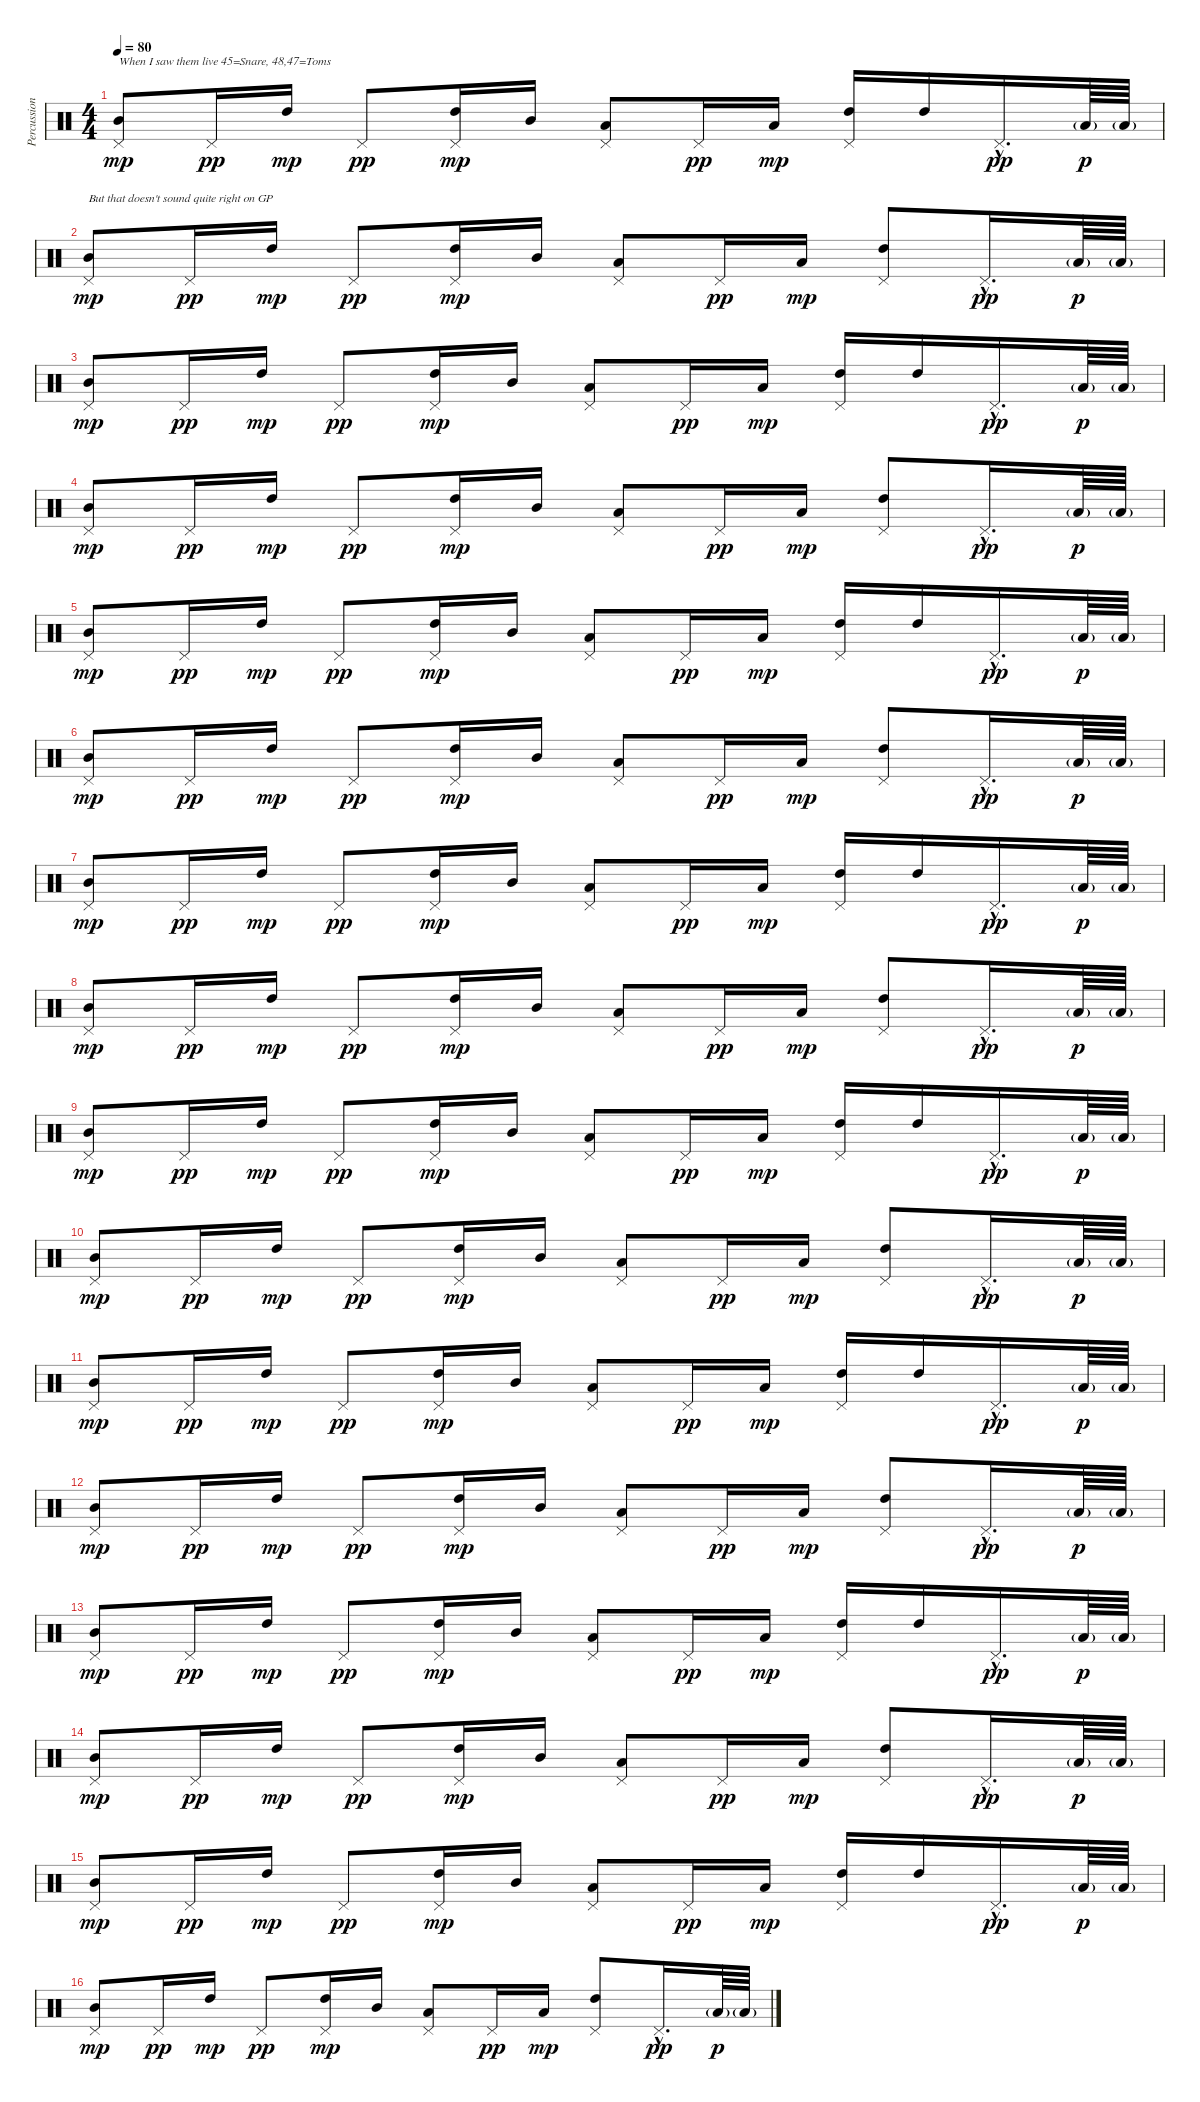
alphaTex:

\track ("Percussion" "Percussion") {instrument percussion}
\staff {score}
\articulation defaults
\ts (4 4)
\tempo 80
\clef neutral
\ks c
("Pedal Hi-Hat (hit)" "Mid Tom (hit)").8{txt "When I saw them live 45=Snare, 48,47=Toms" dy mp} "Pedal Hi-Hat (hit)".16{dy pp} "High Tom (hit)".16{dy mp} "Pedal Hi-Hat (hit)".8{dy pp} ("Pedal Hi-Hat (hit)" "High Tom (hit)").16{dy mp} "Mid Tom (hit)".16 ("Pedal Hi-Hat (hit)" "Low Tom (hit)").8 "Pedal Hi-Hat (hit)".16{dy pp} "Low Tom (hit)".16{dy mp} ("Pedal Hi-Hat (hit)" "High Tom (hit)").16 "High Tom (hit)".16 "Pedal Hi-Hat (hit)"{hac}.16{d dy pp} "Low Tom (hit)"{g}.64{dy p} "Low Tom (hit)"{g}.64 |
("Pedal Hi-Hat (hit)" "Mid Tom (hit)").8{txt "But that doesn't sound quite right on GP" dy mp} "Pedal Hi-Hat (hit)".16{dy pp} "High Tom (hit)".16{dy mp} "Pedal Hi-Hat (hit)".8{dy pp} ("Pedal Hi-Hat (hit)" "High Tom (hit)").16{dy mp} "Mid Tom (hit)".16 ("Pedal Hi-Hat (hit)" "Low Tom (hit)").8 "Pedal Hi-Hat (hit)".16{dy pp} "Low Tom (hit)".16{dy mp} ("Pedal Hi-Hat (hit)" "High Tom (hit)").8 "Pedal Hi-Hat (hit)"{hac}.16{d dy pp} "Low Tom (hit)"{g}.64{dy p} "Low Tom (hit)"{g}.64 |
("Pedal Hi-Hat (hit)" "Mid Tom (hit)").8{dy mp} "Pedal Hi-Hat (hit)".16{dy pp} "High Tom (hit)".16{dy mp} "Pedal Hi-Hat (hit)".8{dy pp} ("Pedal Hi-Hat (hit)" "High Tom (hit)").16{dy mp} "Mid Tom (hit)".16 ("Pedal Hi-Hat (hit)" "Low Tom (hit)").8 "Pedal Hi-Hat (hit)".16{dy pp} "Low Tom (hit)".16{dy mp} ("Pedal Hi-Hat (hit)" "High Tom (hit)").16 "High Tom (hit)".16 "Pedal Hi-Hat (hit)"{hac}.16{d dy pp} "Low Tom (hit)"{g}.64{dy p} "Low Tom (hit)"{g}.64 |
("Pedal Hi-Hat (hit)" "Mid Tom (hit)").8{dy mp} "Pedal Hi-Hat (hit)".16{dy pp} "High Tom (hit)".16{dy mp} "Pedal Hi-Hat (hit)".8{dy pp} ("Pedal Hi-Hat (hit)" "High Tom (hit)").16{dy mp} "Mid Tom (hit)".16 ("Pedal Hi-Hat (hit)" "Low Tom (hit)").8 "Pedal Hi-Hat (hit)".16{dy pp} "Low Tom (hit)".16{dy mp} ("Pedal Hi-Hat (hit)" "High Tom (hit)").8 "Pedal Hi-Hat (hit)"{hac}.16{d dy pp} "Low Tom (hit)"{g}.64{dy p} "Low Tom (hit)"{g}.64 |
("Pedal Hi-Hat (hit)" "Mid Tom (hit)").8{dy mp} "Pedal Hi-Hat (hit)".16{dy pp} "High Tom (hit)".16{dy mp} "Pedal Hi-Hat (hit)".8{dy pp} ("Pedal Hi-Hat (hit)" "High Tom (hit)").16{dy mp} "Mid Tom (hit)".16 ("Pedal Hi-Hat (hit)" "Low Tom (hit)").8 "Pedal Hi-Hat (hit)".16{dy pp} "Low Tom (hit)".16{dy mp} ("Pedal Hi-Hat (hit)" "High Tom (hit)").16 "High Tom (hit)".16 "Pedal Hi-Hat (hit)"{hac}.16{d dy pp} "Low Tom (hit)"{g}.64{dy p} "Low Tom (hit)"{g}.64 |
("Pedal Hi-Hat (hit)" "Mid Tom (hit)").8{dy mp} "Pedal Hi-Hat (hit)".16{dy pp} "High Tom (hit)".16{dy mp} "Pedal Hi-Hat (hit)".8{dy pp} ("Pedal Hi-Hat (hit)" "High Tom (hit)").16{dy mp} "Mid Tom (hit)".16 ("Pedal Hi-Hat (hit)" "Low Tom (hit)").8 "Pedal Hi-Hat (hit)".16{dy pp} "Low Tom (hit)".16{dy mp} ("Pedal Hi-Hat (hit)" "High Tom (hit)").8 "Pedal Hi-Hat (hit)"{hac}.16{d dy pp} "Low Tom (hit)"{g}.64{dy p} "Low Tom (hit)"{g}.64 |
("Pedal Hi-Hat (hit)" "Mid Tom (hit)").8{dy mp} "Pedal Hi-Hat (hit)".16{dy pp} "High Tom (hit)".16{dy mp} "Pedal Hi-Hat (hit)".8{dy pp} ("Pedal Hi-Hat (hit)" "High Tom (hit)").16{dy mp} "Mid Tom (hit)".16 ("Pedal Hi-Hat (hit)" "Low Tom (hit)").8 "Pedal Hi-Hat (hit)".16{dy pp} "Low Tom (hit)".16{dy mp} ("Pedal Hi-Hat (hit)" "High Tom (hit)").16 "High Tom (hit)".16 "Pedal Hi-Hat (hit)"{hac}.16{d dy pp} "Low Tom (hit)"{g}.64{dy p} "Low Tom (hit)"{g}.64 |
("Pedal Hi-Hat (hit)" "Mid Tom (hit)").8{dy mp} "Pedal Hi-Hat (hit)".16{dy pp} "High Tom (hit)".16{dy mp} "Pedal Hi-Hat (hit)".8{dy pp} ("Pedal Hi-Hat (hit)" "High Tom (hit)").16{dy mp} "Mid Tom (hit)".16 ("Pedal Hi-Hat (hit)" "Low Tom (hit)").8 "Pedal Hi-Hat (hit)".16{dy pp} "Low Tom (hit)".16{dy mp} ("Pedal Hi-Hat (hit)" "High Tom (hit)").8 "Pedal Hi-Hat (hit)"{hac}.16{d dy pp} "Low Tom (hit)"{g}.64{dy p} "Low Tom (hit)"{g}.64 |
("Pedal Hi-Hat (hit)" "Mid Tom (hit)").8{dy mp} "Pedal Hi-Hat (hit)".16{dy pp} "High Tom (hit)".16{dy mp} "Pedal Hi-Hat (hit)".8{dy pp} ("Pedal Hi-Hat (hit)" "High Tom (hit)").16{dy mp} "Mid Tom (hit)".16 ("Pedal Hi-Hat (hit)" "Low Tom (hit)").8 "Pedal Hi-Hat (hit)".16{dy pp} "Low Tom (hit)".16{dy mp} ("Pedal Hi-Hat (hit)" "High Tom (hit)").16 "High Tom (hit)".16 "Pedal Hi-Hat (hit)"{hac}.16{d dy pp} "Low Tom (hit)"{g}.64{dy p} "Low Tom (hit)"{g}.64 |
("Pedal Hi-Hat (hit)" "Mid Tom (hit)").8{dy mp} "Pedal Hi-Hat (hit)".16{dy pp} "High Tom (hit)".16{dy mp} "Pedal Hi-Hat (hit)".8{dy pp} ("Pedal Hi-Hat (hit)" "High Tom (hit)").16{dy mp} "Mid Tom (hit)".16 ("Pedal Hi-Hat (hit)" "Low Tom (hit)").8 "Pedal Hi-Hat (hit)".16{dy pp} "Low Tom (hit)".16{dy mp} ("Pedal Hi-Hat (hit)" "High Tom (hit)").8 "Pedal Hi-Hat (hit)"{hac}.16{d dy pp} "Low Tom (hit)"{g}.64{dy p} "Low Tom (hit)"{g}.64 |
("Pedal Hi-Hat (hit)" "Mid Tom (hit)").8{dy mp} "Pedal Hi-Hat (hit)".16{dy pp} "High Tom (hit)".16{dy mp} "Pedal Hi-Hat (hit)".8{dy pp} ("Pedal Hi-Hat (hit)" "High Tom (hit)").16{dy mp} "Mid Tom (hit)".16 ("Pedal Hi-Hat (hit)" "Low Tom (hit)").8 "Pedal Hi-Hat (hit)".16{dy pp} "Low Tom (hit)".16{dy mp} ("Pedal Hi-Hat (hit)" "High Tom (hit)").16 "High Tom (hit)".16 "Pedal Hi-Hat (hit)"{hac}.16{d dy pp} "Low Tom (hit)"{g}.64{dy p} "Low Tom (hit)"{g}.64 |
("Pedal Hi-Hat (hit)" "Mid Tom (hit)").8{dy mp} "Pedal Hi-Hat (hit)".16{dy pp} "High Tom (hit)".16{dy mp} "Pedal Hi-Hat (hit)".8{dy pp} ("Pedal Hi-Hat (hit)" "High Tom (hit)").16{dy mp} "Mid Tom (hit)".16 ("Pedal Hi-Hat (hit)" "Low Tom (hit)").8 "Pedal Hi-Hat (hit)".16{dy pp} "Low Tom (hit)".16{dy mp} ("Pedal Hi-Hat (hit)" "High Tom (hit)").8 "Pedal Hi-Hat (hit)"{hac}.16{d dy pp} "Low Tom (hit)"{g}.64{dy p} "Low Tom (hit)"{g}.64 |
("Pedal Hi-Hat (hit)" "Mid Tom (hit)").8{dy mp} "Pedal Hi-Hat (hit)".16{dy pp} "High Tom (hit)".16{dy mp} "Pedal Hi-Hat (hit)".8{dy pp} ("Pedal Hi-Hat (hit)" "High Tom (hit)").16{dy mp} "Mid Tom (hit)".16 ("Pedal Hi-Hat (hit)" "Low Tom (hit)").8 "Pedal Hi-Hat (hit)".16{dy pp} "Low Tom (hit)".16{dy mp} ("Pedal Hi-Hat (hit)" "High Tom (hit)").16 "High Tom (hit)".16 "Pedal Hi-Hat (hit)"{hac}.16{d dy pp} "Low Tom (hit)"{g}.64{dy p} "Low Tom (hit)"{g}.64 |
("Pedal Hi-Hat (hit)" "Mid Tom (hit)").8{dy mp} "Pedal Hi-Hat (hit)".16{dy pp} "High Tom (hit)".16{dy mp} "Pedal Hi-Hat (hit)".8{dy pp} ("Pedal Hi-Hat (hit)" "High Tom (hit)").16{dy mp} "Mid Tom (hit)".16 ("Pedal Hi-Hat (hit)" "Low Tom (hit)").8 "Pedal Hi-Hat (hit)".16{dy pp} "Low Tom (hit)".16{dy mp} ("Pedal Hi-Hat (hit)" "High Tom (hit)").8 "Pedal Hi-Hat (hit)"{hac}.16{d dy pp} "Low Tom (hit)"{g}.64{dy p} "Low Tom (hit)"{g}.64 |
("Pedal Hi-Hat (hit)" "Mid Tom (hit)").8{dy mp} "Pedal Hi-Hat (hit)".16{dy pp} "High Tom (hit)".16{dy mp} "Pedal Hi-Hat (hit)".8{dy pp} ("Pedal Hi-Hat (hit)" "High Tom (hit)").16{dy mp} "Mid Tom (hit)".16 ("Pedal Hi-Hat (hit)" "Low Tom (hit)").8 "Pedal Hi-Hat (hit)".16{dy pp} "Low Tom (hit)".16{dy mp} ("Pedal Hi-Hat (hit)" "High Tom (hit)").16 "High Tom (hit)".16 "Pedal Hi-Hat (hit)"{hac}.16{d dy pp} "Low Tom (hit)"{g}.64{dy p} "Low Tom (hit)"{g}.64 |
("Pedal Hi-Hat (hit)" "Mid Tom (hit)").8{dy mp} "Pedal Hi-Hat (hit)".16{dy pp} "High Tom (hit)".16{dy mp} "Pedal Hi-Hat (hit)".8{dy pp} ("Pedal Hi-Hat (hit)" "High Tom (hit)").16{dy mp} "Mid Tom (hit)".16 ("Pedal Hi-Hat (hit)" "Low Tom (hit)").8 "Pedal Hi-Hat (hit)".16{dy pp} "Low Tom (hit)".16{dy mp} ("Pedal Hi-Hat (hit)" "High Tom (hit)").8 "Pedal Hi-Hat (hit)"{hac}.16{d dy pp} "Low Tom (hit)"{g}.64{dy p} "Low Tom (hit)"{g}.64
